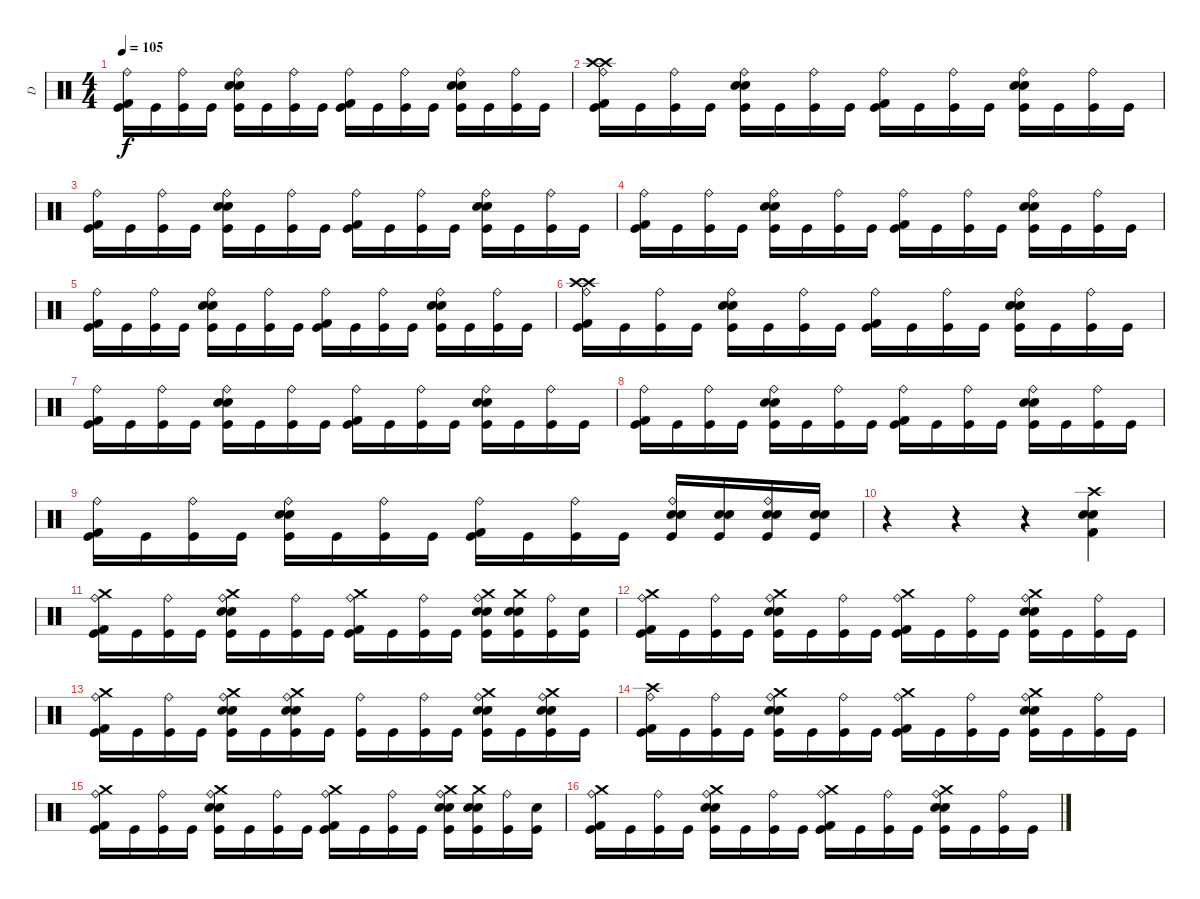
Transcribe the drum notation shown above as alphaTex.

\track ("D" "D") {instrument percussion}
\staff {score}
\articulation defaults
\ts (4 4)
\tempo 105
\clef neutral
\ks c
("Kick (hit) 2" "Kick (hit)" "Ride (bell)").16{dy f} "Kick (hit)".16 ("Kick (hit)" "Ride (bell)").16 "Kick (hit)".16 ("Electric Snare (hit)" "Electric Snare (hit)" "Kick (hit)" "Ride (bell)").16 "Kick (hit)".16 ("Kick (hit)" "Ride (bell)").16 "Kick (hit)".16 ("Kick (hit) 2" "Kick (hit)" "Ride (bell)").16 "Kick (hit)".16 ("Kick (hit)" "Ride (bell)").16 "Kick (hit)".16 ("Electric Snare (hit)" "Electric Snare (hit)" "Kick (hit)" "Ride (bell)").16 "Kick (hit)".16 ("Kick (hit)" "Ride (bell)").16 "Kick (hit)".16 |
("Crash high (hit)" "Crash high (hit)" "Kick (hit) 2" "Kick (hit)" "Ride (bell)").16 "Kick (hit)".16 ("Kick (hit)" "Ride (bell)").16 "Kick (hit)".16 ("Electric Snare (hit)" "Electric Snare (hit)" "Kick (hit)" "Ride (bell)").16 "Kick (hit)".16 ("Kick (hit)" "Ride (bell)").16 "Kick (hit)".16 ("Kick (hit) 2" "Kick (hit)" "Ride (bell)").16 "Kick (hit)".16 ("Kick (hit)" "Ride (bell)").16 "Kick (hit)".16 ("Electric Snare (hit)" "Electric Snare (hit)" "Kick (hit)" "Ride (bell)").16 "Kick (hit)".16 ("Kick (hit)" "Ride (bell)").16 "Kick (hit)".16 |
("Kick (hit) 2" "Kick (hit)" "Ride (bell)").16 "Kick (hit)".16 ("Kick (hit)" "Ride (bell)").16 "Kick (hit)".16 ("Electric Snare (hit)" "Electric Snare (hit)" "Kick (hit)" "Ride (bell)").16 "Kick (hit)".16 ("Kick (hit)" "Ride (bell)").16 "Kick (hit)".16 ("Kick (hit) 2" "Kick (hit)" "Ride (bell)").16 "Kick (hit)".16 ("Kick (hit)" "Ride (bell)").16 "Kick (hit)".16 ("Electric Snare (hit)" "Electric Snare (hit)" "Kick (hit)" "Ride (bell)").16 "Kick (hit)".16 ("Kick (hit)" "Ride (bell)").16 "Kick (hit)".16 |
("Kick (hit) 2" "Kick (hit)" "Ride (bell)").16 "Kick (hit)".16 ("Kick (hit)" "Ride (bell)").16 "Kick (hit)".16 ("Electric Snare (hit)" "Electric Snare (hit)" "Kick (hit)" "Ride (bell)").16 "Kick (hit)".16 ("Kick (hit)" "Ride (bell)").16 "Kick (hit)".16 ("Kick (hit) 2" "Kick (hit)" "Ride (bell)").16 "Kick (hit)".16 ("Kick (hit)" "Ride (bell)").16 "Kick (hit)".16 ("Electric Snare (hit)" "Electric Snare (hit)" "Kick (hit)" "Ride (bell)").16 "Kick (hit)".16 ("Kick (hit)" "Ride (bell)").16 "Kick (hit)".16 |
("Kick (hit) 2" "Kick (hit)" "Ride (bell)").16 "Kick (hit)".16 ("Kick (hit)" "Ride (bell)").16 "Kick (hit)".16 ("Electric Snare (hit)" "Electric Snare (hit)" "Kick (hit)" "Ride (bell)").16 "Kick (hit)".16 ("Kick (hit)" "Ride (bell)").16 "Kick (hit)".16 ("Kick (hit) 2" "Kick (hit)" "Ride (bell)").16 "Kick (hit)".16 ("Kick (hit)" "Ride (bell)").16 "Kick (hit)".16 ("Electric Snare (hit)" "Electric Snare (hit)" "Kick (hit)" "Ride (bell)").16 "Kick (hit)".16 ("Kick (hit)" "Ride (bell)").16 "Kick (hit)".16 |
("Crash high (hit)" "Crash high (hit)" "Kick (hit) 2" "Kick (hit)" "Ride (bell)").16 "Kick (hit)".16 ("Kick (hit)" "Ride (bell)").16 "Kick (hit)".16 ("Electric Snare (hit)" "Electric Snare (hit)" "Kick (hit)" "Ride (bell)").16 "Kick (hit)".16 ("Kick (hit)" "Ride (bell)").16 "Kick (hit)".16 ("Kick (hit) 2" "Kick (hit)" "Ride (bell)").16 "Kick (hit)".16 ("Kick (hit)" "Ride (bell)").16 "Kick (hit)".16 ("Electric Snare (hit)" "Electric Snare (hit)" "Kick (hit)" "Ride (bell)").16 "Kick (hit)".16 ("Kick (hit)" "Ride (bell)").16 "Kick (hit)".16 |
("Kick (hit) 2" "Kick (hit)" "Ride (bell)").16 "Kick (hit)".16 ("Kick (hit)" "Ride (bell)").16 "Kick (hit)".16 ("Electric Snare (hit)" "Electric Snare (hit)" "Kick (hit)" "Ride (bell)").16 "Kick (hit)".16 ("Kick (hit)" "Ride (bell)").16 "Kick (hit)".16 ("Kick (hit) 2" "Kick (hit)" "Ride (bell)").16 "Kick (hit)".16 ("Kick (hit)" "Ride (bell)").16 "Kick (hit)".16 ("Electric Snare (hit)" "Electric Snare (hit)" "Kick (hit)" "Ride (bell)").16 "Kick (hit)".16 ("Kick (hit)" "Ride (bell)").16 "Kick (hit)".16 |
("Kick (hit) 2" "Kick (hit)" "Ride (bell)").16 "Kick (hit)".16 ("Kick (hit)" "Ride (bell)").16 "Kick (hit)".16 ("Electric Snare (hit)" "Electric Snare (hit)" "Kick (hit)" "Ride (bell)").16 "Kick (hit)".16 ("Kick (hit)" "Ride (bell)").16 "Kick (hit)".16 ("Kick (hit) 2" "Kick (hit)" "Ride (bell)").16 "Kick (hit)".16 ("Kick (hit)" "Ride (bell)").16 "Kick (hit)".16 ("Electric Snare (hit)" "Electric Snare (hit)" "Kick (hit)" "Ride (bell)").16 "Kick (hit)".16 ("Kick (hit)" "Ride (bell)").16 "Kick (hit)".16 |
("Kick (hit) 2" "Kick (hit)" "Ride (bell)").16 "Kick (hit)".16 ("Kick (hit)" "Ride (bell)").16 "Kick (hit)".16 ("Electric Snare (hit)" "Electric Snare (hit)" "Kick (hit)" "Ride (bell)").16 "Kick (hit)".16 ("Kick (hit)" "Ride (bell)").16 "Kick (hit)".16 ("Kick (hit) 2" "Kick (hit)" "Ride (bell)").16 "Kick (hit)".16 ("Kick (hit)" "Ride (bell)").16 "Kick (hit)".16 ("Electric Snare (hit)" "Electric Snare (hit)" "Kick (hit)" "Ride (bell)").16 ("Electric Snare (hit)" "Electric Snare (hit)" "Kick (hit)").16 ("Electric Snare (hit)" "Electric Snare (hit)" "Kick (hit)" "Ride (bell)").16 ("Electric Snare (hit)" "Electric Snare (hit)" "Kick (hit)").16 |
r.4 r.4 r.4 ("Crash high (hit)" "Electric Snare (hit)" "Electric Snare (hit)" "Kick (hit) 2").4 |
("Crash medium (hit)" "Kick (hit) 2" "Kick (hit)" "Ride (bell)").16 "Kick (hit)".16 ("Kick (hit)" "Ride (bell)").16 "Kick (hit)".16 ("Crash medium (hit)" "Electric Snare (hit)" "Electric Snare (hit)" "Kick (hit)" "Ride (bell)").16 "Kick (hit)".16 ("Kick (hit)" "Ride (bell)").16 "Kick (hit)".16 ("Crash medium (hit)" "Kick (hit) 2" "Kick (hit)" "Ride (bell)").16 "Kick (hit)".16 ("Kick (hit)" "Ride (bell)").16 "Kick (hit)".16 ("Crash medium (hit)" "Electric Snare (hit)" "Electric Snare (hit)" "Kick (hit)" "Ride (bell)").16 ("Crash medium (hit)" "Electric Snare (hit)" "Electric Snare (hit)" "Kick (hit)").16 ("Kick (hit)" "Ride (bell)").16 ("Electric Snare (hit)" "Kick (hit)").16 |
("Crash medium (hit)" "Kick (hit) 2" "Kick (hit)" "Ride (bell)").16 "Kick (hit)".16 ("Kick (hit)" "Ride (bell)").16 "Kick (hit)".16 ("Crash medium (hit)" "Electric Snare (hit)" "Electric Snare (hit)" "Kick (hit)" "Ride (bell)").16 "Kick (hit)".16 ("Kick (hit)" "Ride (bell)").16 "Kick (hit)".16 ("Crash medium (hit)" "Kick (hit) 2" "Kick (hit)" "Ride (bell)").16 "Kick (hit)".16 ("Kick (hit)" "Ride (bell)").16 "Kick (hit)".16 ("Crash medium (hit)" "Electric Snare (hit)" "Electric Snare (hit)" "Kick (hit)" "Ride (bell)").16 "Kick (hit)".16 ("Kick (hit)" "Ride (bell)").16 "Kick (hit)".16 |
("Crash medium (hit)" "Kick (hit) 2" "Kick (hit)" "Ride (bell)").16 "Kick (hit)".16 ("Kick (hit)" "Ride (bell)").16 "Kick (hit)".16 ("Crash medium (hit)" "Electric Snare (hit)" "Electric Snare (hit)" "Kick (hit)" "Ride (bell)").16 "Kick (hit)".16 ("Crash medium (hit)" "Electric Snare (hit)" "Electric Snare (hit)" "Kick (hit)" "Ride (bell)").16 "Kick (hit)".16 ("Kick (hit)" "Ride (bell)").16 "Kick (hit)".16 ("Kick (hit)" "Ride (bell)").16 "Kick (hit)".16 ("Crash medium (hit)" "Electric Snare (hit)" "Electric Snare (hit)" "Kick (hit)" "Ride (bell)").16 "Kick (hit)".16 ("Crash medium (hit)" "Electric Snare (hit)" "Electric Snare (hit)" "Kick (hit)" "Ride (bell)").16 "Kick (hit)".16 |
("Crash high (hit)" "Kick (hit) 2" "Kick (hit)" "Ride (bell)").16 "Kick (hit)".16 ("Kick (hit)" "Ride (bell)").16 "Kick (hit)".16 ("Crash medium (hit)" "Electric Snare (hit)" "Electric Snare (hit)" "Kick (hit)" "Ride (bell)").16 "Kick (hit)".16 ("Kick (hit)" "Ride (bell)").16 "Kick (hit)".16 ("Crash medium (hit)" "Kick (hit) 2" "Kick (hit)" "Ride (bell)").16 "Kick (hit)".16 ("Kick (hit)" "Ride (bell)").16 "Kick (hit)".16 ("Crash medium (hit)" "Electric Snare (hit)" "Electric Snare (hit)" "Kick (hit)" "Ride (bell)").16 "Kick (hit)".16 ("Kick (hit)" "Ride (bell)").16 "Kick (hit)".16 |
("Crash medium (hit)" "Kick (hit) 2" "Kick (hit)" "Ride (bell)").16 "Kick (hit)".16 ("Kick (hit)" "Ride (bell)").16 "Kick (hit)".16 ("Crash medium (hit)" "Electric Snare (hit)" "Electric Snare (hit)" "Kick (hit)" "Ride (bell)").16 "Kick (hit)".16 ("Kick (hit)" "Ride (bell)").16 "Kick (hit)".16 ("Crash medium (hit)" "Kick (hit) 2" "Kick (hit)" "Ride (bell)").16 "Kick (hit)".16 ("Kick (hit)" "Ride (bell)").16 "Kick (hit)".16 ("Crash medium (hit)" "Electric Snare (hit)" "Electric Snare (hit)" "Kick (hit)" "Ride (bell)").16 ("Crash medium (hit)" "Electric Snare (hit)" "Electric Snare (hit)" "Kick (hit)").16 ("Kick (hit)" "Ride (bell)").16 ("Electric Snare (hit)" "Kick (hit)").16 |
("Crash medium (hit)" "Kick (hit) 2" "Kick (hit)" "Ride (bell)").16 "Kick (hit)".16 ("Kick (hit)" "Ride (bell)").16 "Kick (hit)".16 ("Crash medium (hit)" "Electric Snare (hit)" "Electric Snare (hit)" "Kick (hit)" "Ride (bell)").16 "Kick (hit)".16 ("Kick (hit)" "Ride (bell)").16 "Kick (hit)".16 ("Crash medium (hit)" "Kick (hit) 2" "Kick (hit)" "Ride (bell)").16 "Kick (hit)".16 ("Kick (hit)" "Ride (bell)").16 "Kick (hit)".16 ("Crash medium (hit)" "Electric Snare (hit)" "Electric Snare (hit)" "Kick (hit)" "Ride (bell)").16 "Kick (hit)".16 ("Kick (hit)" "Ride (bell)").16 "Kick (hit)".16
